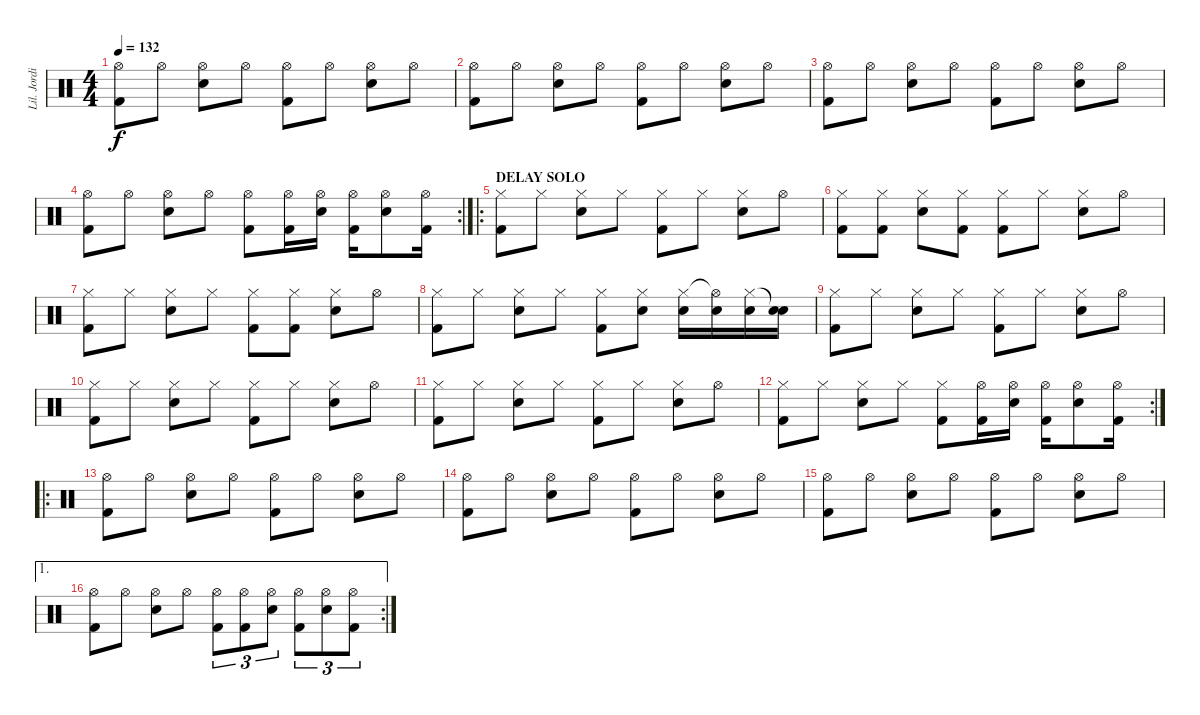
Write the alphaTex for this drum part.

\track ("Lil. Jordison" "Lil. Jordi") {instrument percussion}
\staff {score}
\articulation defaults
\ts (4 4)
\tempo 132
\clef neutral
\ks c
("Hi-Hat (open)" "Kick (hit) 2").8{dy f} "Hi-Hat (open)".8 ("Hi-Hat (open)" "Electric Snare (hit)").8 "Hi-Hat (open)".8 ("Hi-Hat (open)" "Kick (hit) 2").8 "Hi-Hat (open)".8 ("Hi-Hat (open)" "Electric Snare (hit)").8 "Hi-Hat (open)".8 |
("Hi-Hat (open)" "Kick (hit) 2").8 "Hi-Hat (open)".8 ("Hi-Hat (open)" "Electric Snare (hit)").8 "Hi-Hat (open)".8 ("Hi-Hat (open)" "Kick (hit) 2").8 "Hi-Hat (open)".8 ("Hi-Hat (open)" "Electric Snare (hit)").8 "Hi-Hat (open)".8 |
("Hi-Hat (open)" "Kick (hit) 2").8 "Hi-Hat (open)".8 ("Hi-Hat (open)" "Electric Snare (hit)").8 "Hi-Hat (open)".8 ("Hi-Hat (open)" "Kick (hit) 2").8 "Hi-Hat (open)".8 ("Hi-Hat (open)" "Electric Snare (hit)").8 "Hi-Hat (open)".8 |
\rc 2
("Hi-Hat (open)" "Kick (hit) 2").8 "Hi-Hat (open)".8 ("Hi-Hat (open)" "Electric Snare (hit)").8 "Hi-Hat (open)".8 ("Hi-Hat (open)" "Kick (hit) 2").8 ("Hi-Hat (open)" "Kick (hit) 2").16 ("Hi-Hat (open)" "Electric Snare (hit)").16 ("Hi-Hat (open)" "Kick (hit) 2").16 ("Hi-Hat (open)" "Electric Snare (hit)").8 ("Hi-Hat (open)" "Kick (hit) 2").16 |
\ro
\section ("" "DELAY SOLO")
("Hi-Hat (closed)" "Kick (hit) 2").8 "Hi-Hat (closed)".8 ("Hi-Hat (closed)" "Electric Snare (hit)").8 "Hi-Hat (closed)".8 ("Hi-Hat (closed)" "Kick (hit) 2").8 "Hi-Hat (closed)".8 ("Hi-Hat (closed)" "Electric Snare (hit)").8 "Hi-Hat (open)".8 |
("Hi-Hat (closed)" "Kick (hit) 2").8 ("Hi-Hat (closed)" "Kick (hit) 2").8 ("Hi-Hat (closed)" "Electric Snare (hit)").8 ("Hi-Hat (closed)" "Kick (hit) 2").8 ("Hi-Hat (closed)" "Kick (hit) 2").8 "Hi-Hat (closed)".8 ("Hi-Hat (closed)" "Electric Snare (hit)").8 "Hi-Hat (open)".8 |
("Hi-Hat (closed)" "Kick (hit) 2").8 "Hi-Hat (closed)".8 ("Hi-Hat (closed)" "Electric Snare (hit)").8 "Hi-Hat (closed)".8 ("Hi-Hat (closed)" "Kick (hit) 2").8 ("Hi-Hat (closed)" "Kick (hit) 2").8 ("Hi-Hat (closed)" "Electric Snare (hit)").8 "Hi-Hat (open)".8 |
("Hi-Hat (closed)" "Kick (hit) 2").8 "Hi-Hat (closed)".8 ("Hi-Hat (closed)" "Electric Snare (hit)").8 "Hi-Hat (closed)".8 ("Hi-Hat (closed)" "Kick (hit) 2").8 ("Hi-Hat (closed)" "Electric Snare (hit)").8 ("Hi-Hat (closed)" "Electric Snare (hit)").16 ("Hi-Hat (open)"{t} "Electric Snare (hit)").16 ("Hi-Hat (closed)" "Electric Snare (hit)").16 ("Snare (hit)"{t} "Electric Snare (hit)").16 |
("Hi-Hat (closed)" "Kick (hit) 2").8 "Hi-Hat (closed)".8 ("Hi-Hat (closed)" "Electric Snare (hit)").8 "Hi-Hat (closed)".8 ("Hi-Hat (closed)" "Kick (hit) 2").8 "Hi-Hat (closed)".8 ("Hi-Hat (closed)" "Electric Snare (hit)").8 "Hi-Hat (open)".8 |
("Hi-Hat (closed)" "Kick (hit) 2").8 "Hi-Hat (closed)".8 ("Hi-Hat (closed)" "Electric Snare (hit)").8 "Hi-Hat (closed)".8 ("Hi-Hat (closed)" "Kick (hit) 2").8 "Hi-Hat (closed)".8 ("Hi-Hat (closed)" "Electric Snare (hit)").8 "Hi-Hat (open)".8 |
("Hi-Hat (closed)" "Kick (hit) 2").8 "Hi-Hat (closed)".8 ("Hi-Hat (closed)" "Electric Snare (hit)").8 "Hi-Hat (closed)".8 ("Hi-Hat (closed)" "Kick (hit) 2").8 "Hi-Hat (closed)".8 ("Hi-Hat (closed)" "Electric Snare (hit)").8 "Hi-Hat (open)".8 |
\rc 2
("Hi-Hat (closed)" "Kick (hit) 2").8 "Hi-Hat (closed)".8 ("Hi-Hat (closed)" "Electric Snare (hit)").8 "Hi-Hat (closed)".8 ("Hi-Hat (closed)" "Kick (hit) 2").8 ("Hi-Hat (open)" "Kick (hit) 2").16 ("Hi-Hat (open)" "Electric Snare (hit)").16 ("Hi-Hat (open)" "Kick (hit) 2").16 ("Hi-Hat (open)" "Electric Snare (hit)").8 ("Hi-Hat (open)" "Kick (hit) 2").16 |
\ro
("Hi-Hat (open)" "Kick (hit) 2").8 "Hi-Hat (open)".8 ("Hi-Hat (open)" "Electric Snare (hit)").8 "Hi-Hat (open)".8 ("Hi-Hat (open)" "Kick (hit) 2").8 "Hi-Hat (open)".8 ("Hi-Hat (open)" "Electric Snare (hit)").8 "Hi-Hat (open)".8 |
("Hi-Hat (open)" "Kick (hit) 2").8 "Hi-Hat (open)".8 ("Hi-Hat (open)" "Electric Snare (hit)").8 "Hi-Hat (open)".8 ("Hi-Hat (open)" "Kick (hit) 2").8 "Hi-Hat (open)".8 ("Hi-Hat (open)" "Electric Snare (hit)").8 "Hi-Hat (open)".8 |
("Hi-Hat (open)" "Kick (hit) 2").8 "Hi-Hat (open)".8 ("Hi-Hat (open)" "Electric Snare (hit)").8 "Hi-Hat (open)".8 ("Hi-Hat (open)" "Kick (hit) 2").8 "Hi-Hat (open)".8 ("Hi-Hat (open)" "Electric Snare (hit)").8 "Hi-Hat (open)".8 |
\ae 1
\rc 2
("Hi-Hat (open)" "Kick (hit) 2").8 "Hi-Hat (open)".8 ("Hi-Hat (open)" "Electric Snare (hit)").8 "Hi-Hat (open)".8 ("Hi-Hat (open)" "Kick (hit) 2").8{tu (3 2)} ("Hi-Hat (open)" "Kick (hit) 2").8{tu (3 2)} ("Hi-Hat (open)" "Electric Snare (hit)").8{tu (3 2)} ("Hi-Hat (open)" "Kick (hit) 2").8{tu (3 2)} ("Hi-Hat (open)" "Electric Snare (hit)").8{tu (3 2)} ("Hi-Hat (open)" "Kick (hit) 2").8{tu (3 2)}
